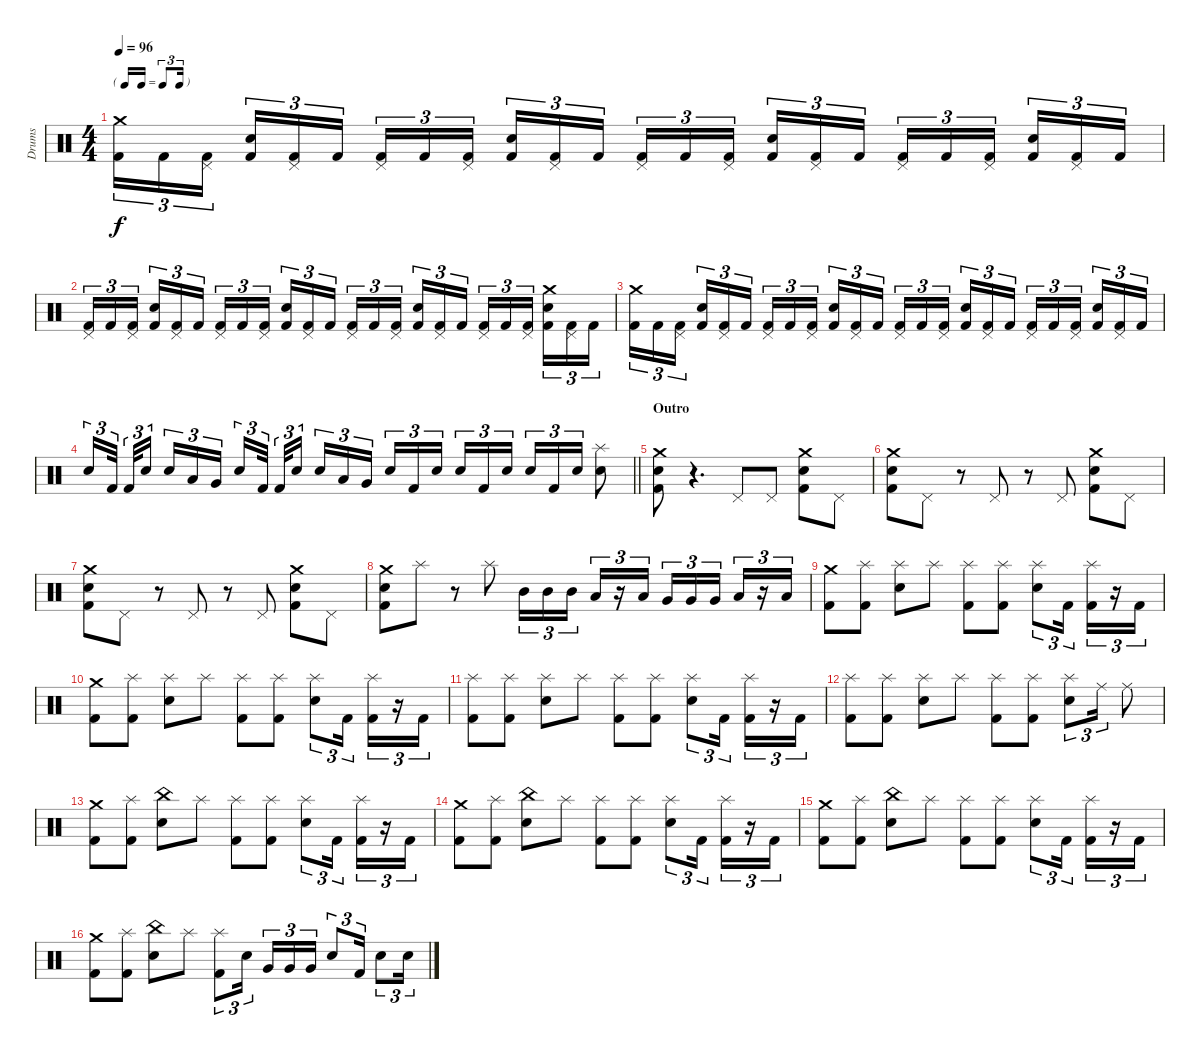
\track ("Drums" "Drums") {instrument percussion}
\staff {score}
\articulation defaults
\ts (4 4)
\tf triplet16th
\tempo 96
\clef neutral
\ks c
("Crash medium (hit)" "Kick (hit) 2").16{tu (3 2) dy f} "Kick (hit) 2".16{tu (3 2)} ("Pedal Hi-Hat (hit)" "Kick (hit) 2").16{tu (3 2) beam splitsecondary} ("Snare (hit) 2" "Kick (hit) 2").16{tu (3 2)} ("Pedal Hi-Hat (hit)" "Kick (hit) 2").16{tu (3 2)} "Kick (hit) 2".16{tu (3 2)} ("Pedal Hi-Hat (hit)" "Kick (hit) 2").16{tu (3 2)} "Kick (hit) 2".16{tu (3 2)} ("Pedal Hi-Hat (hit)" "Kick (hit) 2").16{tu (3 2) beam splitsecondary} ("Snare (hit) 2" "Kick (hit) 2").16{tu (3 2)} ("Pedal Hi-Hat (hit)" "Kick (hit) 2").16{tu (3 2)} "Kick (hit) 2".16{tu (3 2)} ("Pedal Hi-Hat (hit)" "Kick (hit) 2").16{tu (3 2)} "Kick (hit) 2".16{tu (3 2)} ("Pedal Hi-Hat (hit)" "Kick (hit) 2").16{tu (3 2) beam splitsecondary} ("Snare (hit) 2" "Kick (hit) 2").16{tu (3 2)} ("Pedal Hi-Hat (hit)" "Kick (hit) 2").16{tu (3 2)} "Kick (hit) 2".16{tu (3 2)} ("Pedal Hi-Hat (hit)" "Kick (hit) 2").16{tu (3 2)} "Kick (hit) 2".16{tu (3 2)} ("Pedal Hi-Hat (hit)" "Kick (hit) 2").16{tu (3 2) beam splitsecondary} ("Snare (hit) 2" "Kick (hit) 2").16{tu (3 2)} ("Pedal Hi-Hat (hit)" "Kick (hit) 2").16{tu (3 2)} "Kick (hit) 2".16{tu (3 2)} |
("Pedal Hi-Hat (hit)" "Kick (hit) 2").16{tu (3 2)} "Kick (hit) 2".16{tu (3 2)} ("Pedal Hi-Hat (hit)" "Kick (hit) 2").16{tu (3 2) beam splitsecondary} ("Snare (hit) 2" "Kick (hit) 2").16{tu (3 2)} ("Pedal Hi-Hat (hit)" "Kick (hit) 2").16{tu (3 2)} "Kick (hit) 2".16{tu (3 2)} ("Pedal Hi-Hat (hit)" "Kick (hit) 2").16{tu (3 2)} "Kick (hit) 2".16{tu (3 2)} ("Pedal Hi-Hat (hit)" "Kick (hit) 2").16{tu (3 2) beam splitsecondary} ("Snare (hit) 2" "Kick (hit) 2").16{tu (3 2)} ("Pedal Hi-Hat (hit)" "Kick (hit) 2").16{tu (3 2)} "Kick (hit) 2".16{tu (3 2)} ("Pedal Hi-Hat (hit)" "Kick (hit) 2").16{tu (3 2)} "Kick (hit) 2".16{tu (3 2)} ("Pedal Hi-Hat (hit)" "Kick (hit) 2").16{tu (3 2) beam splitsecondary} ("Snare (hit) 2" "Kick (hit) 2").16{tu (3 2)} ("Pedal Hi-Hat (hit)" "Kick (hit) 2").16{tu (3 2)} "Kick (hit) 2".16{tu (3 2)} ("Pedal Hi-Hat (hit)" "Kick (hit) 2").16{tu (3 2)} "Kick (hit) 2".16{tu (3 2)} ("Pedal Hi-Hat (hit)" "Kick (hit) 2").16{tu (3 2) beam splitsecondary} ("Crash medium (hit)" "Snare (hit) 2" "Kick (hit) 2").16{tu (3 2)} ("Pedal Hi-Hat (hit)" "Kick (hit) 2").16{tu (3 2)} "Kick (hit) 2".16{tu (3 2)} |
("Crash medium (hit)" "Kick (hit) 2").16{tu (3 2)} "Kick (hit) 2".16{tu (3 2)} ("Pedal Hi-Hat (hit)" "Kick (hit) 2").16{tu (3 2) beam splitsecondary} ("Snare (hit) 2" "Kick (hit) 2").16{tu (3 2)} ("Pedal Hi-Hat (hit)" "Kick (hit) 2").16{tu (3 2)} "Kick (hit) 2".16{tu (3 2)} ("Pedal Hi-Hat (hit)" "Kick (hit) 2").16{tu (3 2)} "Kick (hit) 2".16{tu (3 2)} ("Pedal Hi-Hat (hit)" "Kick (hit) 2").16{tu (3 2) beam splitsecondary} ("Snare (hit) 2" "Kick (hit) 2").16{tu (3 2)} ("Pedal Hi-Hat (hit)" "Kick (hit) 2").16{tu (3 2)} "Kick (hit) 2".16{tu (3 2)} ("Pedal Hi-Hat (hit)" "Kick (hit) 2").16{tu (3 2)} "Kick (hit) 2".16{tu (3 2)} ("Pedal Hi-Hat (hit)" "Kick (hit) 2").16{tu (3 2) beam splitsecondary} ("Snare (hit) 2" "Kick (hit) 2").16{tu (3 2)} ("Pedal Hi-Hat (hit)" "Kick (hit) 2").16{tu (3 2)} "Kick (hit) 2".16{tu (3 2)} ("Pedal Hi-Hat (hit)" "Kick (hit) 2").16{tu (3 2)} "Kick (hit) 2".16{tu (3 2)} ("Pedal Hi-Hat (hit)" "Kick (hit) 2").16{tu (3 2) beam splitsecondary} ("Snare (hit) 2" "Kick (hit) 2").16{tu (3 2)} ("Pedal Hi-Hat (hit)" "Kick (hit) 2").16{tu (3 2)} "Kick (hit) 2".16{tu (3 2)} |
\barLineRight lightlight "Snare (hit) 2".16{tu (3 2)} "Kick (hit) 2".32{tu (3 2) beam splitsecondary} "Kick (hit) 2".32{tu (3 2)} "Snare (hit) 2".16{tu (3 2) beam splitsecondary} "Snare (hit) 2".16{tu (3 2)} "Low Tom (hit)".16{tu (3 2)} "Very Low Tom (hit)".16{tu (3 2)} "Snare (hit) 2".16{tu (3 2)} "Kick (hit) 2".32{tu (3 2) beam splitsecondary} "Kick (hit) 2".32{tu (3 2)} "Snare (hit) 2".16{tu (3 2) beam splitsecondary} "Snare (hit) 2".16{tu (3 2)} "Low Tom (hit)".16{tu (3 2)} "Very Low Tom (hit)".16{tu (3 2)} "Snare (hit) 2".16{tu (3 2)} "Kick (hit) 2".16{tu (3 2)} "Snare (hit) 2".16{tu (3 2) beam splitsecondary} "Snare (hit) 2".16{tu (3 2)} "Kick (hit) 2".16{tu (3 2)} "Snare (hit) 2".16{tu (3 2)} "Metronome (bell)".16{tu (3 2)} "Kick (hit) 2".16{tu (3 2)} "Snare (hit) 2".16{tu (3 2)}
("Splash (hit)" "Snare (hit) 2").8 |
\section ("" "Outro")
("Crash medium (hit)" "Snare (hit) 2" "Kick (hit) 2").8 r.4{d} "Pedal Hi-Hat (hit)".8 "Pedal Hi-Hat (hit)".8 ("Crash medium (hit)" "Snare (hit) 2" "Kick (hit) 2").8 "Pedal Hi-Hat (hit)".8 |
("Crash medium (hit)" "Snare (hit) 2" "Kick (hit) 2").8 "Pedal Hi-Hat (hit)".8 r.8 "Pedal Hi-Hat (hit)".8 r.8 "Pedal Hi-Hat (hit)".8 ("Crash medium (hit)" "Snare (hit) 2" "Kick (hit) 2").8 "Pedal Hi-Hat (hit)".8 |
("Crash medium (hit)" "Snare (hit) 2" "Kick (hit) 2").8 "Pedal Hi-Hat (hit)".8 r.8 "Pedal Hi-Hat (hit)".8 r.8 "Pedal Hi-Hat (hit)".8 ("Crash medium (hit)" "Snare (hit) 2" "Kick (hit) 2").8 "Pedal Hi-Hat (hit)".8 |
("Crash medium (hit)" "Snare (hit) 2" "Kick (hit) 2").8 "Splash (hit)".8 r.8 "Splash (hit)".8 "Mid Tom (hit)".16{tu (3 2)} "Mid Tom (hit)".16{tu (3 2)} "Mid Tom (hit)".16{tu (3 2) beam splitsecondary} "Low Tom (hit)".16{tu (3 2)} r.16{tu (3 2)} "Low Tom (hit)".16{tu (3 2)} "Very Low Tom (hit)".16{tu (3 2)} "Very Low Tom (hit)".16{tu (3 2)} "Very Low Tom (hit)".16{tu (3 2) beam splitsecondary} "Low Floor Tom (hit)".16{tu (3 2)} r.16{tu (3 2)} "Low Floor Tom (hit)".16{tu (3 2)} |
("Crash medium (hit)" "Kick (hit) 2").8 ("Splash (hit)" "Kick (hit) 2").8 ("Splash (hit)" "Snare (hit) 2").8 "Splash (hit)".8 ("Splash (hit)" "Kick (hit) 2").8 ("Splash (hit)" "Kick (hit) 2").8 ("Splash (hit)" "Snare (hit) 2").8{tu (3 2)} "Kick (hit) 2".16{tu (3 2)} ("Splash (hit)" "Kick (hit) 2").16{tu (3 2)} r.16{tu (3 2)} "Kick (hit) 2".16{tu (3 2)} |
("Crash medium (hit)" "Kick (hit) 2").8 ("Splash (hit)" "Kick (hit) 2").8 ("Splash (hit)" "Snare (hit) 2").8 "Splash (hit)".8 ("Splash (hit)" "Kick (hit) 2").8 ("Splash (hit)" "Kick (hit) 2").8 ("Splash (hit)" "Snare (hit) 2").8{tu (3 2)} "Kick (hit) 2".16{tu (3 2)} ("Splash (hit)" "Kick (hit) 2").16{tu (3 2)} r.16{tu (3 2)} "Kick (hit) 2".16{tu (3 2)} |
("Splash (hit)" "Kick (hit) 2").8 ("Splash (hit)" "Kick (hit) 2").8 ("Splash (hit)" "Snare (hit) 2").8 "Splash (hit)".8 ("Splash (hit)" "Kick (hit) 2").8 ("Splash (hit)" "Kick (hit) 2").8 ("Splash (hit)" "Snare (hit) 2").8{tu (3 2)} "Kick (hit) 2".16{tu (3 2)} ("Splash (hit)" "Kick (hit) 2").16{tu (3 2)} r.16{tu (3 2)} "Kick (hit) 2".16{tu (3 2)} |
("Splash (hit)" "Kick (hit) 2").8 ("Splash (hit)" "Kick (hit) 2").8 ("Splash (hit)" "Snare (hit) 2").8 "Splash (hit)".8 ("Splash (hit)" "Kick (hit) 2").8 ("Splash (hit)" "Kick (hit) 2").8 ("Splash (hit)" "Snare (hit) 2").8{tu (3 2)} "Ride (middle)".16{tu (3 2)} "Ride (middle)".8 |
("Crash medium (hit)" "Kick (hit) 2").8 ("Splash (hit)" "Kick (hit) 2").8 ("China (hit)" "Snare (hit) 2").8 "Splash (hit)".8 ("Splash (hit)" "Kick (hit) 2").8 ("Splash (hit)" "Kick (hit) 2").8 ("Splash (hit)" "Snare (hit) 2").8{tu (3 2)} "Kick (hit) 2".16{tu (3 2)} ("Splash (hit)" "Kick (hit) 2").16{tu (3 2)} r.16{tu (3 2)} "Kick (hit) 2".16{tu (3 2)} |
("Crash medium (hit)" "Kick (hit) 2").8 ("Splash (hit)" "Kick (hit) 2").8 ("China (hit)" "Snare (hit) 2").8 "Splash (hit)".8 ("Splash (hit)" "Kick (hit) 2").8 ("Splash (hit)" "Kick (hit) 2").8 ("Splash (hit)" "Snare (hit) 2").8{tu (3 2)} "Kick (hit) 2".16{tu (3 2)} ("Splash (hit)" "Kick (hit) 2").16{tu (3 2)} r.16{tu (3 2)} "Kick (hit) 2".16{tu (3 2)} |
("Crash medium (hit)" "Kick (hit) 2").8 ("Splash (hit)" "Kick (hit) 2").8 ("China (hit)" "Snare (hit) 2").8 "Splash (hit)".8 ("Splash (hit)" "Kick (hit) 2").8 ("Splash (hit)" "Kick (hit) 2").8 ("Splash (hit)" "Snare (hit) 2").8{tu (3 2)} "Kick (hit) 2".16{tu (3 2)} ("Splash (hit)" "Kick (hit) 2").16{tu (3 2)} r.16{tu (3 2)} "Kick (hit) 2".16{tu (3 2)} |
("Crash medium (hit)" "Kick (hit) 2").8 ("Splash (hit)" "Kick (hit) 2").8 ("China (hit)" "Snare (hit) 2").8 "Splash (hit)".8 ("Splash (hit)" "Kick (hit) 2").8{tu (3 2)} "Snare (hit) 2".16{tu (3 2) beam splitsecondary} "Very Low Tom (hit)".16{tu (3 2)} "Very Low Tom (hit)".16{tu (3 2)} "Very Low Tom (hit)".16{tu (3 2)} "Snare (hit) 2".8{tu (3 2)} "Kick (hit) 2".16{tu (3 2)} "Snare (hit) 2".8{tu (3 2)} "Snare (hit) 2".16{tu (3 2)}
